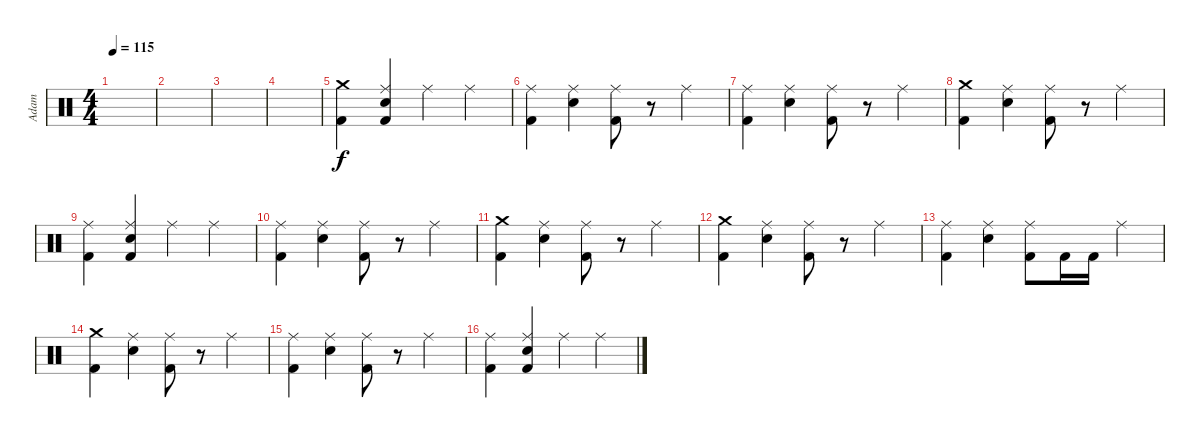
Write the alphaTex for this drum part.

\track ("Adam" "Adam") {instrument percussion}
\staff {score}
\articulation defaults
\ts (4 4)
\tempo 115
\clef neutral
\ks c
|
|
|
|
("Crash medium (hit)" "Kick (hit) 2").4 ("Ride (middle)" "Electric Snare (hit)" "Kick (hit) 2").4 "Ride (middle)".4 "Ride (middle)".4 |
("Ride (middle)" "Kick (hit) 2").4 ("Ride (middle)" "Electric Snare (hit)").4 ("Ride (middle)" "Kick (hit) 2").8 r.8 "Ride (middle)".4 |
("Ride (middle)" "Kick (hit) 2").4 ("Ride (middle)" "Electric Snare (hit)").4 ("Ride (middle)" "Kick (hit) 2").8 r.8 "Ride (middle)".4 |
("Crash medium (hit)" "Kick (hit) 2").4 ("Ride (middle)" "Electric Snare (hit)").4 ("Ride (middle)" "Kick (hit) 2").8 r.8 "Ride (middle)".4 |
("Ride (middle)" "Kick (hit) 2").4 ("Ride (middle)" "Electric Snare (hit)" "Kick (hit) 2").4 "Ride (middle)".4 "Ride (middle)".4 |
("Ride (middle)" "Kick (hit) 2").4 ("Ride (middle)" "Electric Snare (hit)").4 ("Ride (middle)" "Kick (hit) 2").8 r.8 "Ride (middle)".4 |
("Crash medium (hit)" "Kick (hit) 2").4 ("Ride (middle)" "Electric Snare (hit)").4 ("Ride (middle)" "Kick (hit) 2").8 r.8 "Ride (middle)".4 |
("Crash medium (hit)" "Kick (hit) 2").4 ("Ride (middle)" "Electric Snare (hit)").4 ("Ride (middle)" "Kick (hit) 2").8 r.8 "Ride (middle)".4 |
("Ride (middle)" "Kick (hit) 2").4 ("Ride (middle)" "Electric Snare (hit)").4 ("Ride (middle)" "Kick (hit) 2").8 "Kick (hit) 2".16 "Kick (hit) 2".16 "Ride (middle)".4 |
("Crash medium (hit)" "Kick (hit) 2").4 ("Ride (middle)" "Electric Snare (hit)").4 ("Ride (middle)" "Kick (hit) 2").8 r.8 "Ride (middle)".4 |
("Ride (middle)" "Kick (hit) 2").4 ("Ride (middle)" "Electric Snare (hit)").4 ("Ride (middle)" "Kick (hit) 2").8 r.8 "Ride (middle)".4 |
("Ride (middle)" "Kick (hit) 2").4 ("Ride (middle)" "Electric Snare (hit)" "Kick (hit) 2").4 "Ride (middle)".4 "Ride (middle)".4
